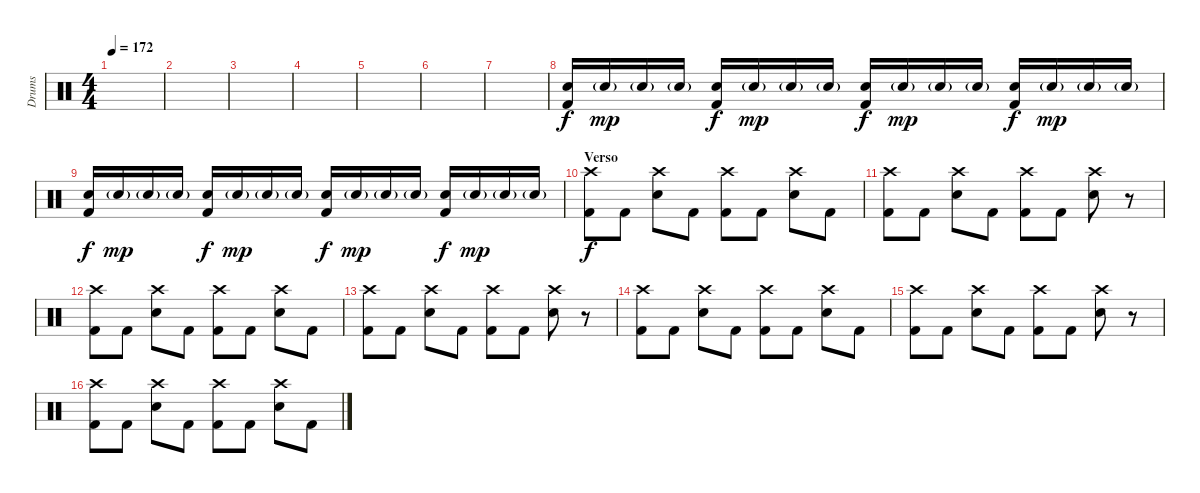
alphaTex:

\track ("Drums" "Drums") {instrument percussion}
\staff {score}
\articulation defaults
\ts (4 4)
\tempo 172
\clef neutral
\ks c
|
|
|
|
|
|
|
("Electric Snare (hit)" "Kick (hit) 2").16 "Electric Snare (hit)"{g}.16{dy mp} "Electric Snare (hit)"{g}.16 "Electric Snare (hit)"{g}.16 ("Electric Snare (hit)" "Kick (hit) 2").16{dy f} "Electric Snare (hit)"{g}.16{dy mp} "Electric Snare (hit)"{g}.16 "Electric Snare (hit)"{g}.16 ("Electric Snare (hit)" "Kick (hit) 2").16{dy f} "Electric Snare (hit)"{g}.16{dy mp} "Electric Snare (hit)"{g}.16 "Electric Snare (hit)"{g}.16 ("Electric Snare (hit)" "Kick (hit) 2").16{dy f} "Electric Snare (hit)"{g}.16{dy mp} "Electric Snare (hit)"{g}.16 "Electric Snare (hit)"{g}.16 |
("Electric Snare (hit)" "Kick (hit) 2").16{dy f} "Electric Snare (hit)"{g}.16{dy mp} "Electric Snare (hit)"{g}.16 "Electric Snare (hit)"{g}.16 ("Electric Snare (hit)" "Kick (hit) 2").16{dy f} "Electric Snare (hit)"{g}.16{dy mp} "Electric Snare (hit)"{g}.16 "Electric Snare (hit)"{g}.16 ("Electric Snare (hit)" "Kick (hit) 2").16{dy f} "Electric Snare (hit)"{g}.16{dy mp} "Electric Snare (hit)"{g}.16 "Electric Snare (hit)"{g}.16 ("Electric Snare (hit)" "Kick (hit) 2").16{dy f} "Electric Snare (hit)"{g}.16{dy mp} "Electric Snare (hit)"{g}.16 "Electric Snare (hit)"{g}.16 |
\section ("" "Verso ")
("Crash high (hit)" "Kick (hit) 2").8{dy f} "Kick (hit) 2".8 ("Crash high (hit)" "Electric Snare (hit)").8 "Kick (hit) 2".8 ("Crash high (hit)" "Kick (hit) 2").8 "Kick (hit) 2".8 ("Crash high (hit)" "Electric Snare (hit)").8 "Kick (hit) 2".8 |
("Crash high (hit)" "Kick (hit) 2").8 "Kick (hit) 2".8 ("Crash high (hit)" "Electric Snare (hit)").8 "Kick (hit) 2".8 ("Crash high (hit)" "Kick (hit) 2").8 "Kick (hit) 2".8 ("Crash high (hit)" "Electric Snare (hit)").8 r.8 |
("Crash high (hit)" "Kick (hit) 2").8 "Kick (hit) 2".8 ("Crash high (hit)" "Electric Snare (hit)").8 "Kick (hit) 2".8 ("Crash high (hit)" "Kick (hit) 2").8 "Kick (hit) 2".8 ("Crash high (hit)" "Electric Snare (hit)").8 "Kick (hit) 2".8 |
("Crash high (hit)" "Kick (hit) 2").8 "Kick (hit) 2".8 ("Crash high (hit)" "Electric Snare (hit)").8 "Kick (hit) 2".8 ("Crash high (hit)" "Kick (hit) 2").8 "Kick (hit) 2".8 ("Crash high (hit)" "Electric Snare (hit)").8 r.8 |
("Crash high (hit)" "Kick (hit) 2").8 "Kick (hit) 2".8 ("Crash high (hit)" "Electric Snare (hit)").8 "Kick (hit) 2".8 ("Crash high (hit)" "Kick (hit) 2").8 "Kick (hit) 2".8 ("Crash high (hit)" "Electric Snare (hit)").8 "Kick (hit) 2".8 |
("Crash high (hit)" "Kick (hit) 2").8 "Kick (hit) 2".8 ("Crash high (hit)" "Electric Snare (hit)").8 "Kick (hit) 2".8 ("Crash high (hit)" "Kick (hit) 2").8 "Kick (hit) 2".8 ("Crash high (hit)" "Electric Snare (hit)").8 r.8 |
("Crash high (hit)" "Kick (hit) 2").8 "Kick (hit) 2".8 ("Crash high (hit)" "Electric Snare (hit)").8 "Kick (hit) 2".8 ("Crash high (hit)" "Kick (hit) 2").8 "Kick (hit) 2".8 ("Crash high (hit)" "Electric Snare (hit)").8 "Kick (hit) 2".8
